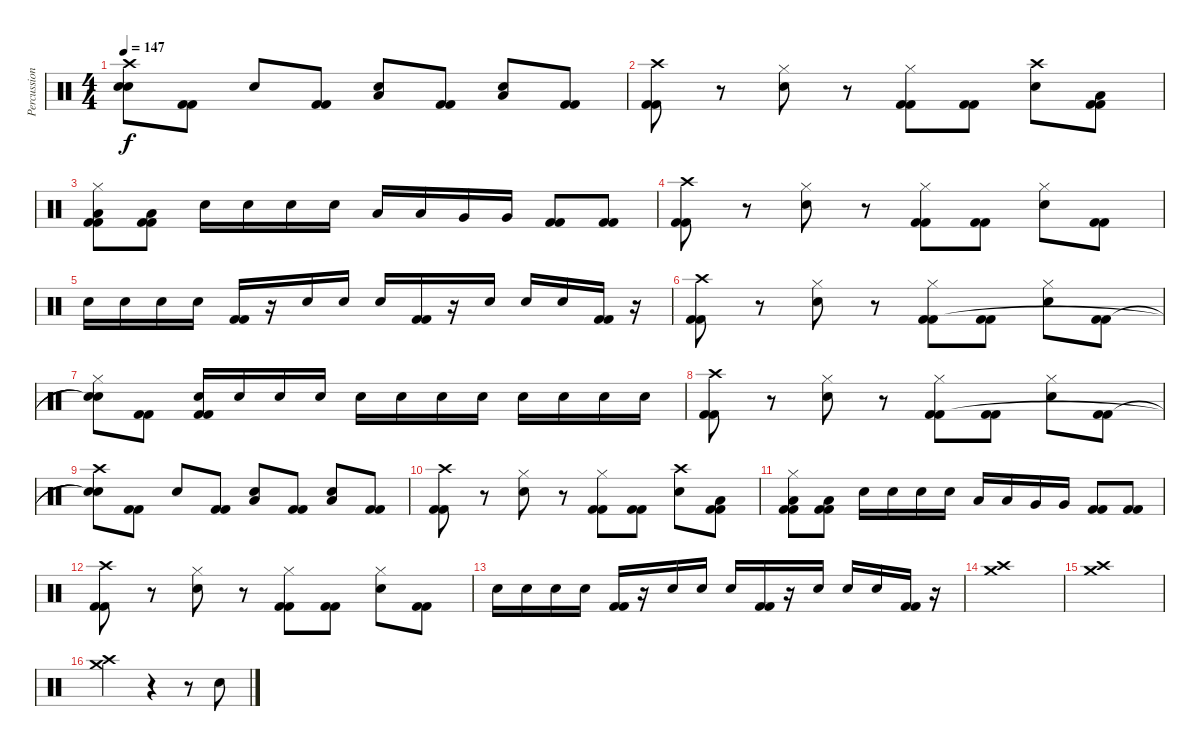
\track ("Percussions" "Percussion") {instrument percussion}
\staff {score}
\articulation defaults
\ts (4 4)
\tempo 147
\clef neutral
\ks c
("Crash high (hit)" "Snare (hit)"{t} "Snare (hit)"{t}).8{dy f} ("Kick (hit) 2" "Kick (hit) 2").8 "Snare (hit) 2".8 ("Kick (hit) 2" "Kick (hit) 2").8 ("Low Tom (hit)" "Snare (hit) 2").8 ("Kick (hit) 2" "Kick (hit) 2").8 ("Low Tom (hit)" "Snare (hit) 2").8 ("Kick (hit) 2" "Kick (hit) 2").8 |
("Crash high (hit)" "Kick (hit) 2" "Kick (hit) 2").8 r.8 ("Hi-Hat (closed)" "Snare (hit) 2").8 r.8 ("Hi-Hat (closed)" "Kick (hit) 2" "Kick (hit) 2").8 ("Kick (hit) 2" "Kick (hit) 2").8 ("Crash high (hit)" "Snare (hit) 2").8 ("Low Tom (hit)" "Kick (hit) 2" "Kick (hit) 2").8 |
("Hi-Hat (closed)" "Low Tom (hit)" "Kick (hit) 2" "Kick (hit) 2").8 ("Low Tom (hit)" "Kick (hit) 2" "Kick (hit) 2").8 "Snare (hit) 2".16 "Snare (hit) 2".16 "Snare (hit) 2".16 "Snare (hit) 2".16 "Low Tom (hit)".16 "Low Tom (hit)".16 "Very Low Tom (hit)".16 "Very Low Tom (hit)".16 ("Kick (hit) 2" "Kick (hit) 2").8 ("Kick (hit) 2" "Kick (hit) 2").8 |
("Crash high (hit)" "Kick (hit) 2" "Kick (hit) 2").8 r.8 ("Hi-Hat (closed)" "Snare (hit) 2").8 r.8 ("Hi-Hat (closed)" "Kick (hit) 2" "Kick (hit) 2").8 ("Kick (hit) 2" "Kick (hit) 2").8 ("Hi-Hat (closed)" "Snare (hit) 2").8 ("Kick (hit) 2" "Kick (hit) 2").8 |
"Snare (hit) 2".16 "Snare (hit) 2".16 "Snare (hit) 2".16 "Snare (hit) 2".16 ("Kick (hit) 2" "Kick (hit) 2").16 r.16 "Snare (hit) 2".16 "Snare (hit) 2".16 "Snare (hit) 2".16 ("Kick (hit) 2" "Kick (hit) 2").16 r.16 "Snare (hit) 2".16 "Snare (hit) 2".16 "Snare (hit) 2".16 ("Kick (hit) 2" "Kick (hit) 2").16 r.16 |
("Crash high (hit)" "Kick (hit) 2" "Kick (hit) 2").8 r.8 ("Hi-Hat (closed)" "Snare (hit) 2").8 r.8 ("Hi-Hat (closed)" "Kick (hit) 2" "Kick (hit) 2").8 ("Kick (hit) 2" "Kick (hit) 2").8 ("Hi-Hat (closed)" "Snare (hit) 2").8 ("Kick (hit) 2" "Kick (hit) 2").8 |
("Hi-Hat (closed)" "Snare (hit)"{t} "Snare (hit)"{t}).8 ("Kick (hit) 2" "Kick (hit) 2").8 ("Snare (hit) 2" "Kick (hit) 2" "Kick (hit) 2").16 "Snare (hit) 2".16 "Snare (hit) 2".16 "Snare (hit) 2".16 "Snare (hit) 2".16 "Snare (hit) 2".16 "Snare (hit) 2".16 "Snare (hit) 2".16 "Snare (hit) 2".16 "Snare (hit) 2".16 "Snare (hit) 2".16 "Snare (hit) 2".16 |
("Crash high (hit)" "Kick (hit) 2" "Kick (hit) 2").8 r.8 ("Hi-Hat (closed)" "Snare (hit) 2").8 r.8 ("Hi-Hat (closed)" "Kick (hit) 2" "Kick (hit) 2").8 ("Kick (hit) 2" "Kick (hit) 2").8 ("Hi-Hat (closed)" "Snare (hit) 2").8 ("Kick (hit) 2" "Kick (hit) 2").8 |
("Crash high (hit)" "Snare (hit)"{t} "Snare (hit)"{t}).8 ("Kick (hit) 2" "Kick (hit) 2").8 "Snare (hit) 2".8 ("Kick (hit) 2" "Kick (hit) 2").8 ("Low Tom (hit)" "Snare (hit) 2").8 ("Kick (hit) 2" "Kick (hit) 2").8 ("Low Tom (hit)" "Snare (hit) 2").8 ("Kick (hit) 2" "Kick (hit) 2").8 |
("Crash high (hit)" "Kick (hit) 2" "Kick (hit) 2").8 r.8 ("Hi-Hat (closed)" "Snare (hit) 2").8 r.8 ("Hi-Hat (closed)" "Kick (hit) 2" "Kick (hit) 2").8 ("Kick (hit) 2" "Kick (hit) 2").8 ("Crash high (hit)" "Snare (hit) 2").8 ("Low Tom (hit)" "Kick (hit) 2" "Kick (hit) 2").8 |
("Hi-Hat (closed)" "Low Tom (hit)" "Kick (hit) 2" "Kick (hit) 2").8 ("Low Tom (hit)" "Kick (hit) 2" "Kick (hit) 2").8 "Snare (hit) 2".16 "Snare (hit) 2".16 "Snare (hit) 2".16 "Snare (hit) 2".16 "Low Tom (hit)".16 "Low Tom (hit)".16 "Very Low Tom (hit)".16 "Very Low Tom (hit)".16 ("Kick (hit) 2" "Kick (hit) 2").8 ("Kick (hit) 2" "Kick (hit) 2").8 |
("Crash high (hit)" "Kick (hit) 2" "Kick (hit) 2").8 r.8 ("Hi-Hat (closed)" "Snare (hit) 2").8 r.8 ("Hi-Hat (closed)" "Kick (hit) 2" "Kick (hit) 2").8 ("Kick (hit) 2" "Kick (hit) 2").8 ("Hi-Hat (closed)" "Snare (hit) 2").8 ("Kick (hit) 2" "Kick (hit) 2").8 |
"Snare (hit) 2".16 "Snare (hit) 2".16 "Snare (hit) 2".16 "Snare (hit) 2".16 ("Kick (hit) 2" "Kick (hit) 2").16 r.16 "Snare (hit) 2".16 "Snare (hit) 2".16 "Snare (hit) 2".16 ("Kick (hit) 2" "Kick (hit) 2").16 r.16 "Snare (hit) 2".16 "Snare (hit) 2".16 "Snare (hit) 2".16 ("Kick (hit) 2" "Kick (hit) 2").16 r.16 |
("Crash medium (hit)" "Crash high (hit)").1 |
("Crash medium (hit)" "Crash high (hit)").1 |
("Crash medium (hit)" "Crash high (hit)").2 r.4 r.8 "Snare (hit) 2".8
